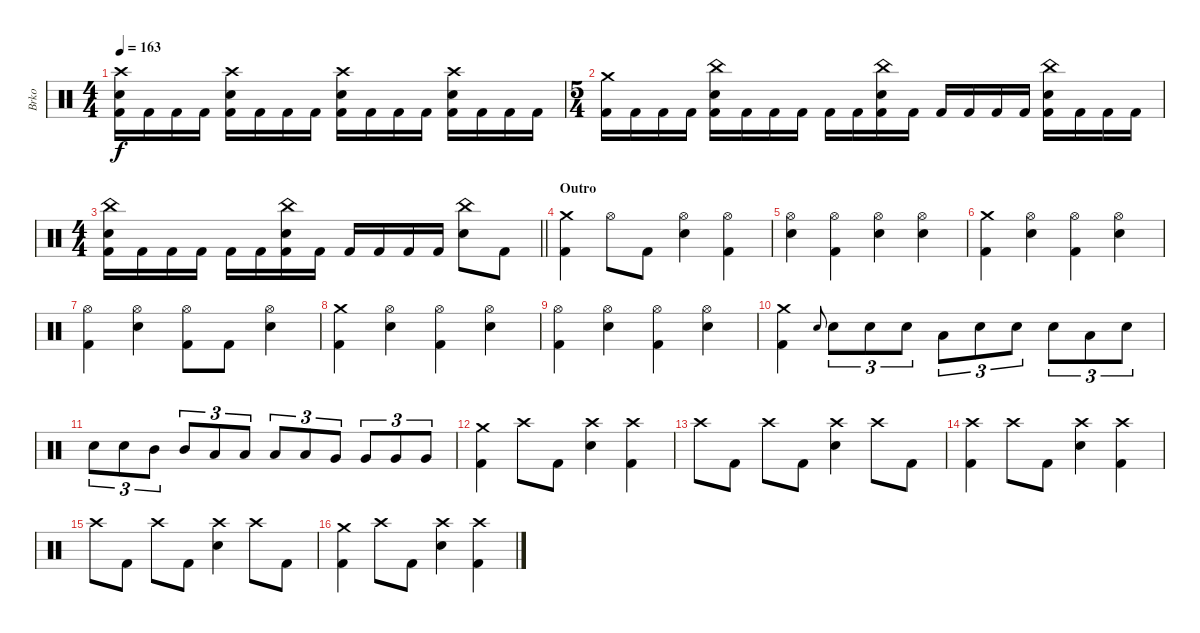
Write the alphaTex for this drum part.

\track ("Brko" "Brko") {instrument percussion}
\staff {score}
\articulation defaults
\ts (4 4)
\tempo 163
\clef neutral
\ks c
("Crash high (hit)" "Electric Snare (hit)" "Kick (hit) 2").16{dy f} "Kick (hit) 2".16 "Kick (hit) 2".16 "Kick (hit) 2".16 ("Crash high (hit)" "Electric Snare (hit)" "Kick (hit) 2").16 "Kick (hit) 2".16 "Kick (hit) 2".16 "Kick (hit) 2".16 ("Crash high (hit)" "Electric Snare (hit)" "Kick (hit) 2").16 "Kick (hit) 2".16 "Kick (hit) 2".16 "Kick (hit) 2".16 ("Crash high (hit)" "Electric Snare (hit)" "Kick (hit) 2").16 "Kick (hit) 2".16 "Kick (hit) 2".16 "Kick (hit) 2".16 |
\ts (5 4)
("Crash medium (hit)" "Kick (hit) 2").16 "Kick (hit) 2".16 "Kick (hit) 2".16 "Kick (hit) 2".16 ("China (hit)" "Electric Snare (hit)" "Kick (hit) 2").16 "Kick (hit) 2".16 "Kick (hit) 2".16 "Kick (hit) 2".16 "Kick (hit) 2".16 "Kick (hit) 2".16 ("China (hit)" "Electric Snare (hit)" "Kick (hit) 2").16 "Kick (hit) 2".16 "Kick (hit) 2".16 "Kick (hit) 2".16 "Kick (hit) 2".16 "Kick (hit) 2".16 ("China (hit)" "Electric Snare (hit)" "Kick (hit) 2").16 "Kick (hit) 2".16 "Kick (hit) 2".16 "Kick (hit) 2".16 |
\ts (4 4)
\barLineRight lightlight
("China (hit)" "Electric Snare (hit)" "Kick (hit) 2").16 "Kick (hit) 2".16 "Kick (hit) 2".16 "Kick (hit) 2".16 "Kick (hit) 2".16 "Kick (hit) 2".16 ("China (hit)" "Electric Snare (hit)" "Kick (hit) 2").16 "Kick (hit) 2".16 "Kick (hit) 2".16 "Kick (hit) 2".16 "Kick (hit) 2".16 "Kick (hit) 2".16 ("China (hit)" "Electric Snare (hit)").8 "Kick (hit) 2".8 |
\section ("" "Outro")
("Crash medium (hit)" "Kick (hit) 2").4 "Hi-Hat (open)".8 "Kick (hit) 2".8 ("Hi-Hat (open)" "Electric Snare (hit)").4 ("Hi-Hat (open)" "Kick (hit) 2").4 |
("Hi-Hat (open)" "Electric Snare (hit)").4 ("Hi-Hat (open)" "Kick (hit) 2").4 ("Hi-Hat (open)" "Electric Snare (hit)").4 ("Hi-Hat (open)" "Electric Snare (hit)").4 |
("Crash medium (hit)" "Kick (hit) 2").4 ("Hi-Hat (open)" "Electric Snare (hit)").4 ("Hi-Hat (open)" "Kick (hit) 2").4 ("Hi-Hat (open)" "Electric Snare (hit)").4 |
("Hi-Hat (open)" "Kick (hit) 2").4 ("Hi-Hat (open)" "Electric Snare (hit)").4 ("Hi-Hat (open)" "Kick (hit) 2").8 "Kick (hit) 2".8 ("Hi-Hat (open)" "Electric Snare (hit)").4 |
("Crash medium (hit)" "Kick (hit) 2").4 ("Hi-Hat (open)" "Electric Snare (hit)").4 ("Hi-Hat (open)" "Kick (hit) 2").4 ("Hi-Hat (open)" "Electric Snare (hit)").4 |
("Hi-Hat (open)" "Kick (hit) 2").4 ("Hi-Hat (open)" "Electric Snare (hit)").4 ("Hi-Hat (open)" "Kick (hit) 2").4 ("Hi-Hat (open)" "Electric Snare (hit)").4 |
("Crash medium (hit)" "Kick (hit) 2").4 "Electric Snare (hit)".8{gr onbeat} "Electric Snare (hit)".8{tu (3 2)} "Electric Snare (hit)".8{tu (3 2)} "Electric Snare (hit)".8{tu (3 2)} "Low Tom (hit)".8{tu (3 2)} "Electric Snare (hit)".8{tu (3 2)} "Electric Snare (hit)".8{tu (3 2)} "Electric Snare (hit)".8{tu (3 2)} "Low Tom (hit)".8{tu (3 2)} "Electric Snare (hit)".8{tu (3 2)} |
"Electric Snare (hit)".8{tu (3 2)} "Electric Snare (hit)".8{tu (3 2)} "Mid Tom (hit)".8{tu (3 2)} "Mid Tom (hit)".8{tu (3 2)} "Low Tom (hit)".8{tu (3 2)} "Low Tom (hit)".8{tu (3 2)} "Low Tom (hit)".8{tu (3 2)} "Low Tom (hit)".8{tu (3 2)} "Very Low Tom (hit)".8{tu (3 2)} "Very Low Tom (hit)".8{tu (3 2)} "Very Low Tom (hit)".8{tu (3 2)} "Very Low Tom (hit)".8{tu (3 2)} |
("Crash medium (hit)" "Kick (hit) 2").4 "Crash high (hit)".8 "Kick (hit) 2".8 ("Crash high (hit)" "Electric Snare (hit)").4 ("Crash high (hit)" "Kick (hit) 2").4 |
"Crash high (hit)".8 "Kick (hit) 2".8 "Crash high (hit)".8 "Kick (hit) 2".8 ("Crash high (hit)" "Electric Snare (hit)").4 "Crash high (hit)".8 "Kick (hit) 2".8 |
("Crash high (hit)" "Kick (hit) 2").4 "Crash high (hit)".8 "Kick (hit) 2".8 ("Crash high (hit)" "Electric Snare (hit)").4 ("Crash high (hit)" "Kick (hit) 2").4 |
"Crash high (hit)".8 "Kick (hit) 2".8 "Crash high (hit)".8 "Kick (hit) 2".8 ("Crash high (hit)" "Electric Snare (hit)").4 "Crash high (hit)".8 "Kick (hit) 2".8 |
("Crash medium (hit)" "Kick (hit) 2").4 "Crash high (hit)".8 "Kick (hit) 2".8 ("Crash high (hit)" "Electric Snare (hit)").4 ("Crash high (hit)" "Kick (hit) 2").4
